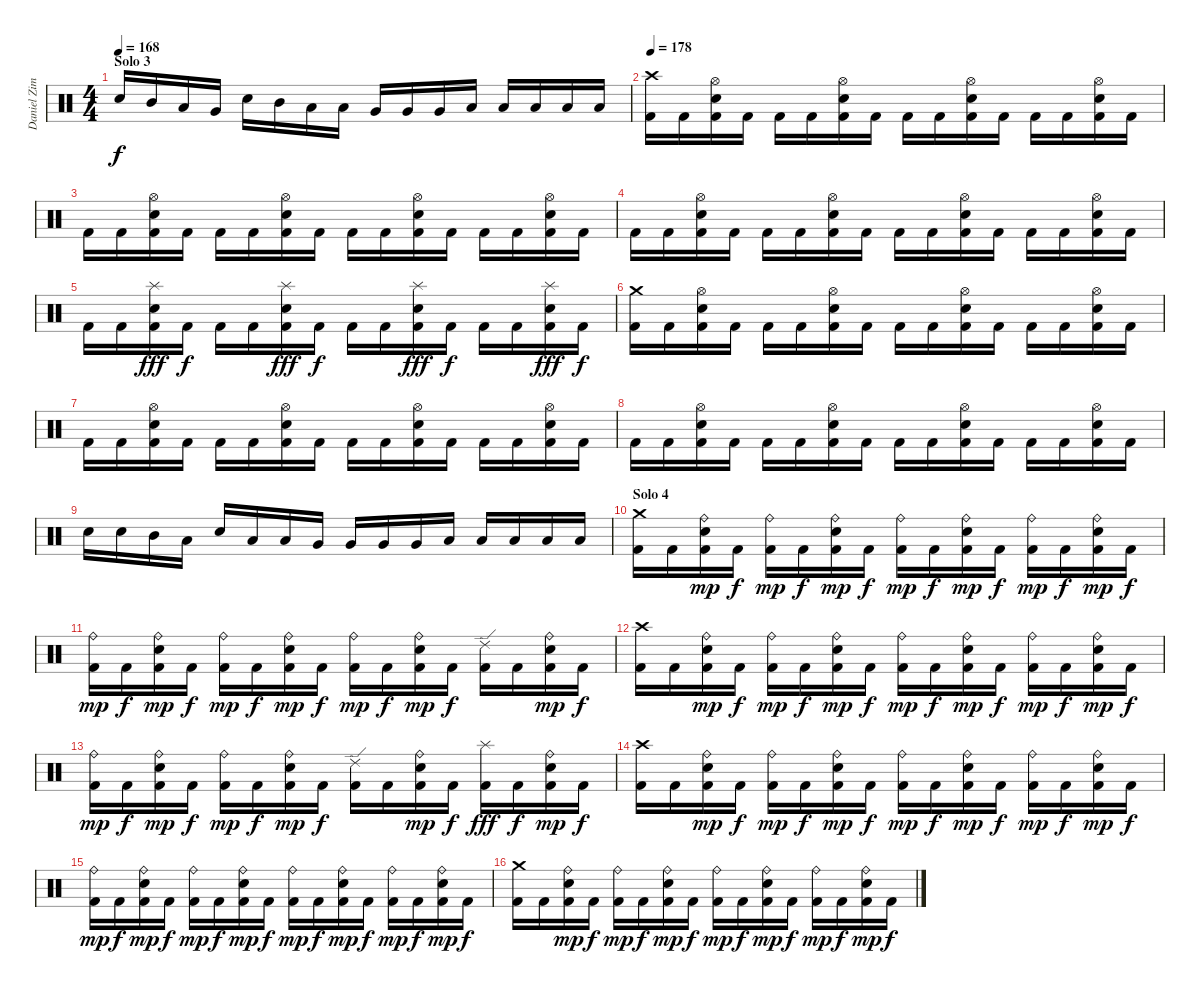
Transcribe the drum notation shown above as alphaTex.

\track ("Daniel Zimmermann" "Daniel Zim") {instrument percussion}
\staff {score}
\articulation defaults
\ts (4 4)
\section ("" "Solo 3")
\tempo 168
\clef neutral
\ks c "Electric Snare (hit)".16{dy f} "Mid Tom (hit)".16 "Low Tom (hit)".16 "Very Low Tom (hit)".16 "Electric Snare (hit)".16 "Mid Tom (hit)".16 "Low Tom (hit)".16 "Low Tom (hit)".16 "Very Low Tom (hit)".16 "Very Low Tom (hit)".16 "Very Low Tom (hit)".16 "Low Floor Tom (hit)".16 "Low Floor Tom (hit)".16 "Low Floor Tom (hit)".16 "Low Floor Tom (hit)".16 "Low Floor Tom (hit)".16
|
\tempo 178
("Kick (hit) 2" "Crash high (hit)").16 "Kick (hit) 2".16 ("Kick (hit) 2" "Electric Snare (hit)" "Hi-Hat (open)").16 "Kick (hit) 2".16 "Kick (hit) 2".16 "Kick (hit) 2".16 ("Kick (hit) 2" "Electric Snare (hit)" "Hi-Hat (open)").16 "Kick (hit) 2".16 "Kick (hit) 2".16 "Kick (hit) 2".16 ("Kick (hit) 2" "Electric Snare (hit)" "Hi-Hat (open)").16 "Kick (hit) 2".16 "Kick (hit) 2".16 "Kick (hit) 2".16 ("Kick (hit) 2" "Electric Snare (hit)" "Hi-Hat (open)").16 "Kick (hit) 2".16 |
"Kick (hit) 2".16 "Kick (hit) 2".16 ("Kick (hit) 2" "Electric Snare (hit)" "Hi-Hat (open)").16 "Kick (hit) 2".16 "Kick (hit) 2".16 "Kick (hit) 2".16 ("Kick (hit) 2" "Electric Snare (hit)" "Hi-Hat (open)").16 "Kick (hit) 2".16 "Kick (hit) 2".16 "Kick (hit) 2".16 ("Kick (hit) 2" "Electric Snare (hit)" "Hi-Hat (open)").16 "Kick (hit) 2".16 "Kick (hit) 2".16 "Kick (hit) 2".16 ("Kick (hit) 2" "Electric Snare (hit)" "Hi-Hat (open)").16 "Kick (hit) 2".16 |
"Kick (hit) 2".16 "Kick (hit) 2".16 ("Kick (hit) 2" "Electric Snare (hit)" "Hi-Hat (open)").16 "Kick (hit) 2".16 "Kick (hit) 2".16 "Kick (hit) 2".16 ("Kick (hit) 2" "Electric Snare (hit)" "Hi-Hat (open)").16 "Kick (hit) 2".16 "Kick (hit) 2".16 "Kick (hit) 2".16 ("Kick (hit) 2" "Electric Snare (hit)" "Hi-Hat (open)").16 "Kick (hit) 2".16 "Kick (hit) 2".16 "Kick (hit) 2".16 ("Kick (hit) 2" "Electric Snare (hit)" "Hi-Hat (open)").16 "Kick (hit) 2".16 |
"Kick (hit) 2".16 "Kick (hit) 2".16 ("Kick (hit) 2" "Electric Snare (hit)" "Splash (hit)").16{dy fff} "Kick (hit) 2".16{dy f} "Kick (hit) 2".16 "Kick (hit) 2".16 ("Kick (hit) 2" "Electric Snare (hit)" "Splash (hit)").16{dy fff} "Kick (hit) 2".16{dy f} "Kick (hit) 2".16 "Kick (hit) 2".16 ("Kick (hit) 2" "Electric Snare (hit)" "Splash (hit)").16{dy fff} "Kick (hit) 2".16{dy f} "Kick (hit) 2".16 "Kick (hit) 2".16 ("Kick (hit) 2" "Electric Snare (hit)" "Splash (hit)").16{dy fff} "Kick (hit) 2".16{dy f} |
("Kick (hit) 2" "Crash medium (hit)").16 "Kick (hit) 2".16 ("Kick (hit) 2" "Electric Snare (hit)" "Hi-Hat (open)").16 "Kick (hit) 2".16 "Kick (hit) 2".16 "Kick (hit) 2".16 ("Kick (hit) 2" "Electric Snare (hit)" "Hi-Hat (open)").16 "Kick (hit) 2".16 "Kick (hit) 2".16 "Kick (hit) 2".16 ("Kick (hit) 2" "Electric Snare (hit)" "Hi-Hat (open)").16 "Kick (hit) 2".16 "Kick (hit) 2".16 "Kick (hit) 2".16 ("Kick (hit) 2" "Electric Snare (hit)" "Hi-Hat (open)").16 "Kick (hit) 2".16 |
"Kick (hit) 2".16 "Kick (hit) 2".16 ("Kick (hit) 2" "Electric Snare (hit)" "Hi-Hat (open)").16 "Kick (hit) 2".16 "Kick (hit) 2".16 "Kick (hit) 2".16 ("Kick (hit) 2" "Electric Snare (hit)" "Hi-Hat (open)").16 "Kick (hit) 2".16 "Kick (hit) 2".16 "Kick (hit) 2".16 ("Kick (hit) 2" "Electric Snare (hit)" "Hi-Hat (open)").16 "Kick (hit) 2".16 "Kick (hit) 2".16 "Kick (hit) 2".16 ("Kick (hit) 2" "Electric Snare (hit)" "Hi-Hat (open)").16 "Kick (hit) 2".16 |
"Kick (hit) 2".16 "Kick (hit) 2".16 ("Kick (hit) 2" "Electric Snare (hit)" "Hi-Hat (open)").16 "Kick (hit) 2".16 "Kick (hit) 2".16 "Kick (hit) 2".16 ("Kick (hit) 2" "Electric Snare (hit)" "Hi-Hat (open)").16 "Kick (hit) 2".16 "Kick (hit) 2".16 "Kick (hit) 2".16 ("Kick (hit) 2" "Electric Snare (hit)" "Hi-Hat (open)").16 "Kick (hit) 2".16 "Kick (hit) 2".16 "Kick (hit) 2".16 ("Kick (hit) 2" "Electric Snare (hit)" "Hi-Hat (open)").16 "Kick (hit) 2".16 |
"Electric Snare (hit)".16 "Electric Snare (hit)".16 "Mid Tom (hit)".16 "Low Tom (hit)".16 "Electric Snare (hit)".16 "Low Tom (hit)".16 "Low Tom (hit)".16 "Very Low Tom (hit)".16 "Very Low Tom (hit)".16 "Very Low Tom (hit)".16 "Very Low Tom (hit)".16 "Low Floor Tom (hit)".16 "Low Floor Tom (hit)".16 "Low Floor Tom (hit)".16 "Low Floor Tom (hit)".16 "Low Floor Tom (hit)".16 |
\section ("" "Solo 4")
("Kick (hit) 2" "Crash medium (hit)").16 "Kick (hit) 2".16 ("Kick (hit) 2" "Electric Snare (hit)" "Ride (bell)").16{dy mp} "Kick (hit) 2".16{dy f} ("Kick (hit) 2" "Ride (bell)").16{dy mp} "Kick (hit) 2".16{dy f} ("Kick (hit) 2" "Electric Snare (hit)" "Ride (bell)").16{dy mp} "Kick (hit) 2".16{dy f} ("Kick (hit) 2" "Ride (bell)").16{dy mp} "Kick (hit) 2".16{dy f} ("Kick (hit) 2" "Electric Snare (hit)" "Ride (bell)").16{dy mp} "Kick (hit) 2".16{dy f} ("Kick (hit) 2" "Ride (bell)").16{dy mp} "Kick (hit) 2".16{dy f} ("Kick (hit) 2" "Electric Snare (hit)" "Ride (bell)").16{dy mp} "Kick (hit) 2".16{dy f} |
("Kick (hit) 2" "Ride (bell)").16{dy mp} "Kick (hit) 2".16{dy f} ("Kick (hit) 2" "Electric Snare (hit)" "Ride (bell)").16{dy mp} "Kick (hit) 2".16{dy f} ("Kick (hit) 2" "Ride (bell)").16{dy mp} "Kick (hit) 2".16{dy f} ("Kick (hit) 2" "Electric Snare (hit)" "Ride (bell)").16{dy mp} "Kick (hit) 2".16{dy f} ("Kick (hit) 2" "Ride (bell)").16{dy mp} "Kick (hit) 2".16{dy f} ("Kick (hit) 2" "Electric Snare (hit)" "Ride (bell)").16{dy mp} "Kick (hit) 2".16{dy f} ("Kick (hit) 2" "Ride (edge) 2").16 "Kick (hit) 2".16 ("Kick (hit) 2" "Electric Snare (hit)" "Ride (bell)").16{dy mp} "Kick (hit) 2".16{dy f} |
("Kick (hit) 2" "Crash high (hit)").16 "Kick (hit) 2".16 ("Kick (hit) 2" "Electric Snare (hit)" "Ride (bell)").16{dy mp} "Kick (hit) 2".16{dy f} ("Kick (hit) 2" "Ride (bell)").16{dy mp} "Kick (hit) 2".16{dy f} ("Kick (hit) 2" "Electric Snare (hit)" "Ride (bell)").16{dy mp} "Kick (hit) 2".16{dy f} ("Kick (hit) 2" "Ride (bell)").16{dy mp} "Kick (hit) 2".16{dy f} ("Kick (hit) 2" "Electric Snare (hit)" "Ride (bell)").16{dy mp} "Kick (hit) 2".16{dy f} ("Kick (hit) 2" "Ride (bell)").16{dy mp} "Kick (hit) 2".16{dy f} ("Kick (hit) 2" "Electric Snare (hit)" "Ride (bell)").16{dy mp} "Kick (hit) 2".16{dy f} |
("Kick (hit) 2" "Ride (bell)").16{dy mp} "Kick (hit) 2".16{dy f} ("Kick (hit) 2" "Electric Snare (hit)" "Ride (bell)").16{dy mp} "Kick (hit) 2".16{dy f} ("Kick (hit) 2" "Ride (bell)").16{dy mp} "Kick (hit) 2".16{dy f} ("Kick (hit) 2" "Electric Snare (hit)" "Ride (bell)").16{dy mp} "Kick (hit) 2".16{dy f} ("Kick (hit) 2" "Ride (edge) 2").16 "Kick (hit) 2".16 ("Kick (hit) 2" "Electric Snare (hit)" "Ride (bell)").16{dy mp} "Kick (hit) 2".16{dy f} ("Kick (hit) 2" "Splash (hit)").16{dy fff} "Kick (hit) 2".16{dy f} ("Kick (hit) 2" "Electric Snare (hit)" "Ride (bell)").16{dy mp} "Kick (hit) 2".16{dy f} |
("Kick (hit) 2" "Crash high (hit)").16 "Kick (hit) 2".16 ("Kick (hit) 2" "Electric Snare (hit)" "Ride (bell)").16{dy mp} "Kick (hit) 2".16{dy f} ("Kick (hit) 2" "Ride (bell)").16{dy mp} "Kick (hit) 2".16{dy f} ("Kick (hit) 2" "Electric Snare (hit)" "Ride (bell)").16{dy mp} "Kick (hit) 2".16{dy f} ("Kick (hit) 2" "Ride (bell)").16{dy mp} "Kick (hit) 2".16{dy f} ("Kick (hit) 2" "Electric Snare (hit)" "Ride (bell)").16{dy mp} "Kick (hit) 2".16{dy f} ("Kick (hit) 2" "Ride (bell)").16{dy mp} "Kick (hit) 2".16{dy f} ("Kick (hit) 2" "Electric Snare (hit)" "Ride (bell)").16{dy mp} "Kick (hit) 2".16{dy f} |
("Kick (hit) 2" "Ride (bell)").16{dy mp} "Kick (hit) 2".16{dy f} ("Kick (hit) 2" "Electric Snare (hit)" "Ride (bell)").16{dy mp} "Kick (hit) 2".16{dy f} ("Kick (hit) 2" "Ride (bell)").16{dy mp} "Kick (hit) 2".16{dy f} ("Kick (hit) 2" "Electric Snare (hit)" "Ride (bell)").16{dy mp} "Kick (hit) 2".16{dy f} ("Kick (hit) 2" "Ride (bell)").16{dy mp} "Kick (hit) 2".16{dy f} ("Kick (hit) 2" "Electric Snare (hit)" "Ride (bell)").16{dy mp} "Kick (hit) 2".16{dy f} ("Kick (hit) 2" "Ride (bell)").16{dy mp} "Kick (hit) 2".16{dy f} ("Kick (hit) 2" "Electric Snare (hit)" "Ride (bell)").16{dy mp} "Kick (hit) 2".16{dy f} |
("Kick (hit) 2" "Crash medium (hit)").16 "Kick (hit) 2".16 ("Kick (hit) 2" "Electric Snare (hit)" "Ride (bell)").16{dy mp} "Kick (hit) 2".16{dy f} ("Kick (hit) 2" "Ride (bell)").16{dy mp} "Kick (hit) 2".16{dy f} ("Kick (hit) 2" "Electric Snare (hit)" "Ride (bell)").16{dy mp} "Kick (hit) 2".16{dy f} ("Kick (hit) 2" "Ride (bell)").16{dy mp} "Kick (hit) 2".16{dy f} ("Kick (hit) 2" "Electric Snare (hit)" "Ride (bell)").16{dy mp} "Kick (hit) 2".16{dy f} ("Kick (hit) 2" "Ride (bell)").16{dy mp} "Kick (hit) 2".16{dy f} ("Kick (hit) 2" "Electric Snare (hit)" "Ride (bell)").16{dy mp} "Kick (hit) 2".16{dy f}
